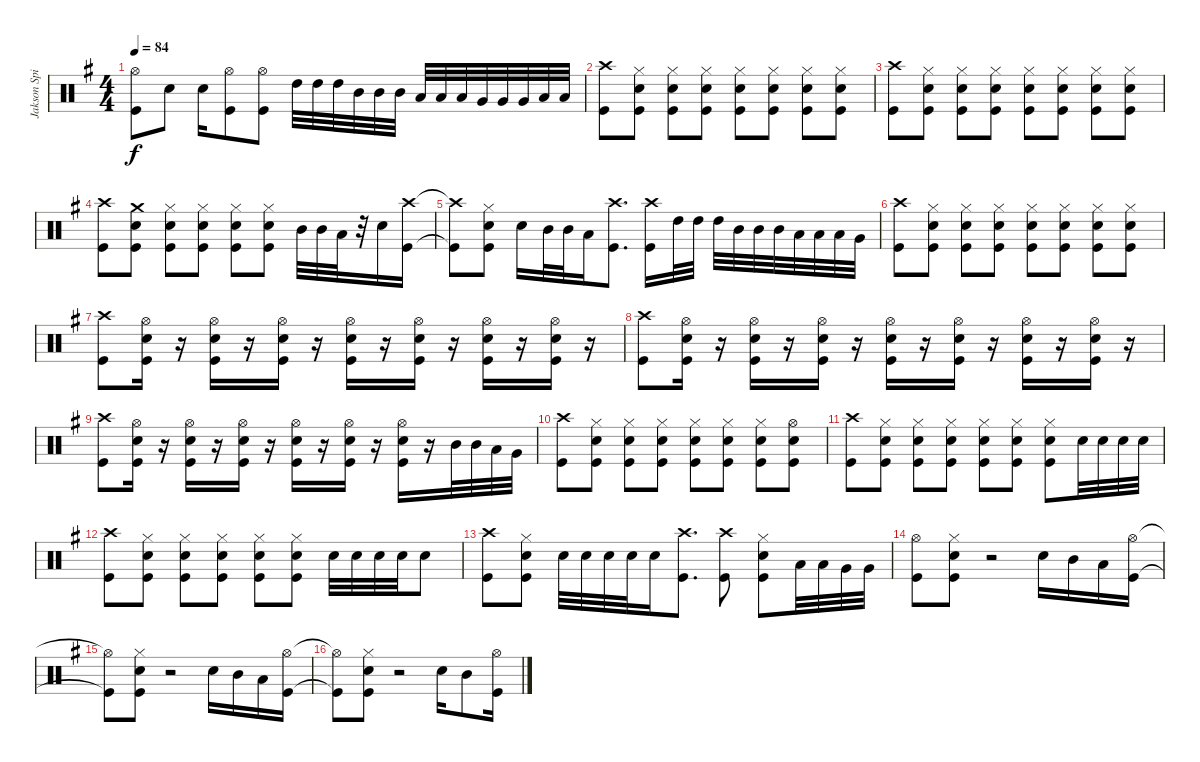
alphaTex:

\track ("Jakson Spires Drums" "Jakson Spi") {instrument percussion}
\staff {score}
\articulation defaults
\ts (4 4)
\tempo 84
\clef neutral
\ks g
("Hi-Hat (open)"{t} "Kick (hit)"{t}).8{dy f} "Snare (hit) 2".8 "Snare (hit) 2".16 ("Hi-Hat (open)" "Kick (hit)").8 ("Hi-Hat (open)" "Kick (hit)").8 "High Tom (hit)".32 "High Tom (hit)".32 "High Tom (hit)".32 "Mid Tom (hit)".32 "Mid Tom (hit)".32 "Mid Tom (hit)".32 "Low Tom (hit)".32 "Low Tom (hit)".32 "Low Tom (hit)".32 "Very Low Tom (hit)".32 "Very Low Tom (hit)".32 "Very Low Tom (hit)".32 "Low Floor Tom (hit)".32 "Low Floor Tom (hit)".32 |
("Crash high (hit)" "Kick (hit)").8 ("Hi-Hat (closed)" "Snare (hit) 2" "Kick (hit)").8 ("Hi-Hat (closed)" "Snare (hit) 2" "Kick (hit)").8 ("Hi-Hat (closed)" "Snare (hit) 2" "Kick (hit)").8 ("Hi-Hat (closed)" "Snare (hit) 2" "Kick (hit)").8 ("Hi-Hat (closed)" "Snare (hit) 2" "Kick (hit)").8 ("Hi-Hat (closed)" "Snare (hit) 2" "Kick (hit)").8 ("Hi-Hat (closed)" "Snare (hit) 2" "Kick (hit)").8 |
("Crash high (hit)" "Kick (hit)").8 ("Hi-Hat (closed)" "Snare (hit) 2" "Kick (hit)").8 ("Hi-Hat (closed)" "Snare (hit) 2" "Kick (hit)").8 ("Hi-Hat (closed)" "Snare (hit) 2" "Kick (hit)").8 ("Hi-Hat (closed)" "Snare (hit) 2" "Kick (hit)").8 ("Hi-Hat (closed)" "Snare (hit) 2" "Kick (hit)").8 ("Hi-Hat (closed)" "Snare (hit) 2" "Kick (hit)").8 ("Hi-Hat (closed)" "Snare (hit) 2" "Kick (hit)").8 |
("Crash high (hit)" "Kick (hit)").8 ("Crash medium (hit)" "Snare (hit) 2" "Kick (hit)").8 ("Hi-Hat (closed)" "Snare (hit) 2" "Kick (hit)").8 ("Hi-Hat (closed)" "Snare (hit) 2" "Kick (hit)").8 ("Hi-Hat (closed)" "Snare (hit) 2" "Kick (hit)").8 ("Hi-Hat (closed)" "Snare (hit) 2" "Kick (hit)").8 "Mid Tom (hit)".32 "Mid Tom (hit)".32 "Low Tom (hit)".32 r.32 "Snare (hit) 2".16 ("Crash high (hit)" "Kick (hit)").16 |
("Crash high (hit)"{t} "Kick (hit)"{t}).8 ("Hi-Hat (closed)" "Snare (hit) 2" "Kick (hit)").8 "Snare (hit) 2".16 "Mid Tom (hit)".32 "Mid Tom (hit)".32 "Low Tom (hit)".16 ("Crash high (hit)" "Kick (hit)").8{d} ("Crash high (hit)" "Kick (hit)").16 "High Tom (hit)".32 "High Tom (hit)".32 "High Tom (hit)".32 "Mid Tom (hit)".32 "Mid Tom (hit)".32 "Mid Tom (hit)".32 "Low Tom (hit)".32 "Low Tom (hit)".32 "Low Tom (hit)".32 "Very Low Tom (hit)".32 |
("Crash high (hit)" "Kick (hit)").8 ("Hi-Hat (closed)" "Snare (hit) 2" "Kick (hit)").8 ("Hi-Hat (closed)" "Snare (hit) 2" "Kick (hit)").8 ("Hi-Hat (closed)" "Snare (hit) 2" "Kick (hit)").8 ("Hi-Hat (closed)" "Snare (hit) 2" "Kick (hit)").8 ("Hi-Hat (closed)" "Snare (hit) 2" "Kick (hit)").8 ("Hi-Hat (closed)" "Snare (hit) 2" "Kick (hit)").8 ("Hi-Hat (closed)" "Snare (hit) 2" "Kick (hit)").8 |
("Crash high (hit)" "Kick (hit)").8 ("Hi-Hat (open)" "Snare (hit) 2" "Kick (hit)").16 r.16 ("Hi-Hat (open)" "Snare (hit) 2" "Kick (hit)").16 r.16 ("Hi-Hat (open)" "Snare (hit) 2" "Kick (hit)").16 r.16 ("Hi-Hat (open)" "Snare (hit) 2" "Kick (hit)").16 r.16 ("Hi-Hat (open)" "Snare (hit) 2" "Kick (hit)").16 r.16 ("Hi-Hat (open)" "Snare (hit) 2" "Kick (hit)").16 r.16 ("Hi-Hat (open)" "Snare (hit) 2" "Kick (hit)").16 r.16 |
("Crash high (hit)" "Kick (hit)").8 ("Hi-Hat (open)" "Snare (hit) 2" "Kick (hit)").16 r.16 ("Hi-Hat (open)" "Snare (hit) 2" "Kick (hit)").16 r.16 ("Hi-Hat (open)" "Snare (hit) 2" "Kick (hit)").16 r.16 ("Hi-Hat (open)" "Snare (hit) 2" "Kick (hit)").16 r.16 ("Hi-Hat (open)" "Snare (hit) 2" "Kick (hit)").16 r.16 ("Hi-Hat (open)" "Snare (hit) 2" "Kick (hit)").16 r.16 ("Hi-Hat (open)" "Snare (hit) 2" "Kick (hit)").16 r.16 |
("Crash high (hit)" "Kick (hit)").8 ("Hi-Hat (open)" "Snare (hit) 2" "Kick (hit)").16 r.16 ("Hi-Hat (open)" "Snare (hit) 2" "Kick (hit)").16 r.16 ("Hi-Hat (open)" "Snare (hit) 2" "Kick (hit)").16 r.16 ("Hi-Hat (open)" "Snare (hit) 2" "Kick (hit)").16 r.16 ("Hi-Hat (open)" "Snare (hit) 2" "Kick (hit)").16 r.16 ("Hi-Hat (open)" "Snare (hit) 2" "Kick (hit)").16 r.16 "Mid Tom (hit)".32 "Mid Tom (hit)".32 "Low Tom (hit)".32 "Very Low Tom (hit)".32 |
("Crash high (hit)" "Kick (hit)").8 ("Hi-Hat (closed)" "Snare (hit) 2" "Kick (hit)").8 ("Hi-Hat (closed)" "Snare (hit) 2" "Kick (hit)").8 ("Hi-Hat (closed)" "Snare (hit) 2" "Kick (hit)").8 ("Hi-Hat (closed)" "Snare (hit) 2" "Kick (hit)").8 ("Hi-Hat (closed)" "Snare (hit) 2" "Kick (hit)").8 ("Hi-Hat (closed)" "Snare (hit) 2" "Kick (hit)").8 ("Hi-Hat (open)" "Snare (hit) 2" "Kick (hit)").8 |
("Crash high (hit)" "Kick (hit)").8 ("Hi-Hat (closed)" "Snare (hit) 2" "Kick (hit)").8 ("Hi-Hat (closed)" "Snare (hit) 2" "Kick (hit)").8 ("Hi-Hat (closed)" "Snare (hit) 2" "Kick (hit)").8 ("Hi-Hat (closed)" "Snare (hit) 2" "Kick (hit)").8 ("Hi-Hat (closed)" "Snare (hit) 2" "Kick (hit)").8 ("Hi-Hat (closed)" "Snare (hit) 2" "Kick (hit)").8 "Snare (hit) 2".32 "Snare (hit) 2".32 "Snare (hit) 2".32 "Snare (hit) 2".32 |
("Crash high (hit)" "Kick (hit)").8 ("Hi-Hat (closed)" "Snare (hit) 2" "Kick (hit)").8 ("Hi-Hat (closed)" "Snare (hit) 2" "Kick (hit)").8 ("Hi-Hat (closed)" "Snare (hit) 2" "Kick (hit)").8 ("Hi-Hat (closed)" "Snare (hit) 2" "Kick (hit)").8 ("Hi-Hat (closed)" "Snare (hit) 2" "Kick (hit)").8 "Snare (hit) 2".32 "Snare (hit) 2".32 "Snare (hit) 2".32 "Snare (hit) 2".32 "Snare (hit) 2".8 |
("Crash high (hit)" "Kick (hit)").8 ("Hi-Hat (closed)" "Snare (hit) 2" "Kick (hit)").8 "Snare (hit) 2".32 "Snare (hit) 2".32 "Snare (hit) 2".32 "Snare (hit) 2".32 "Snare (hit) 2".16 ("Crash high (hit)" "Kick (hit)").8{d} ("Crash high (hit)" "Kick (hit)").8 ("Hi-Hat (closed)" "Snare (hit) 2" "Kick (hit)").8 "Low Tom (hit)".32 "Low Tom (hit)".32 "Very Low Tom (hit)".32 "Very Low Tom (hit)".32 |
("Hi-Hat (open)" "Kick (hit)").8 ("Hi-Hat (closed)" "Snare (hit) 2" "Kick (hit)").8 r.2 "Snare (hit) 2".16 "Mid Tom (hit)".16 "Low Tom (hit)".16 ("Hi-Hat (open)" "Kick (hit)").16 |
("Hi-Hat (open)"{t} "Kick (hit)"{t}).8 ("Hi-Hat (closed)" "Snare (hit) 2" "Kick (hit)").8 r.2 "Snare (hit) 2".16 "Mid Tom (hit)".16 "Low Tom (hit)".16 ("Hi-Hat (open)" "Kick (hit)").16 |
("Hi-Hat (open)"{t} "Kick (hit)"{t}).8 ("Hi-Hat (closed)" "Snare (hit) 2" "Kick (hit)").8 r.2 "Snare (hit) 2".16 "Mid Tom (hit)".8 ("Hi-Hat (open)" "Kick (hit)").16
